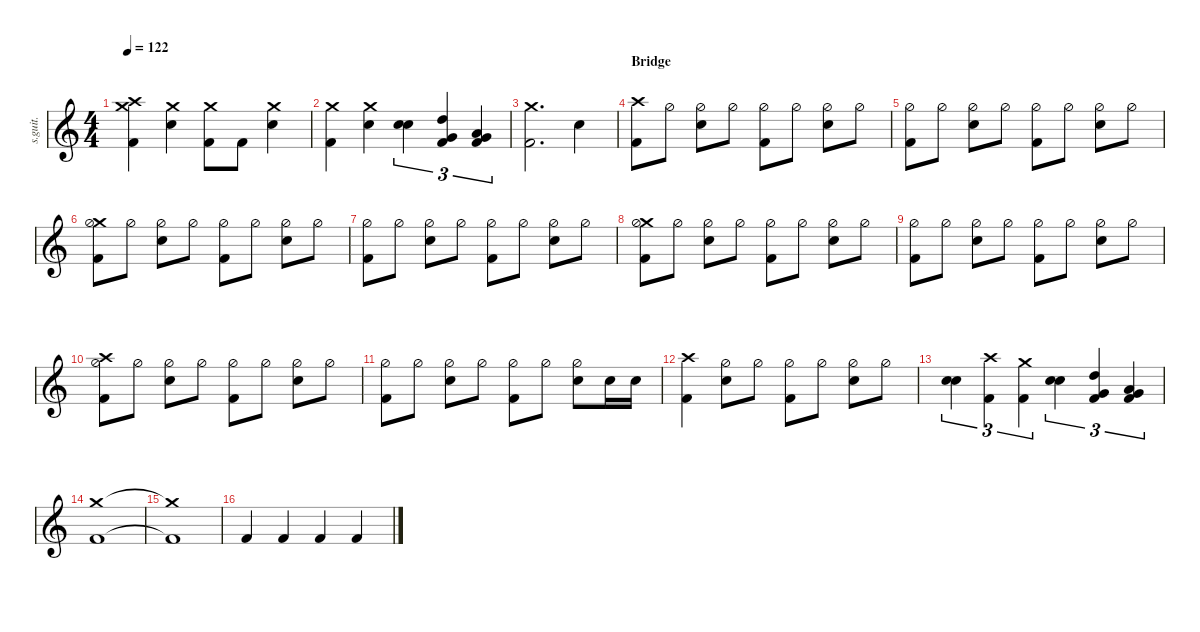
\defaultSystemsLayout 4
\hideDynamics
\bracketExtendMode nobrackets
\track ("Neil Sanderson" "s.guit.") {instrument percussion}
\staff {score}
\articulation defaults
\ts (4 4)
\tempo 122
\clef g2
\ks c
("Crash high (hit)" "Crash medium (hit)" "Kick (hit) 2").4{lyrics (0 "") lyrics (1 "") lyrics (2 "") lyrics (3 "") lyrics (4 "") dy f} ("Crash medium (hit)" "Snare (hit) 2").4{lyrics (0 "") lyrics (1 "") lyrics (2 "") lyrics (3 "") lyrics (4 "")} ("Crash medium (hit)" "Kick (hit) 2").8{lyrics (0 "") lyrics (1 "") lyrics (2 "") lyrics (3 "") lyrics (4 "")} "Kick (hit) 2".8{lyrics (0 "") lyrics (1 "") lyrics (2 "") lyrics (3 "") lyrics (4 "")} ("Crash medium (hit)" "Snare (hit) 2").4{lyrics (0 "") lyrics (1 "") lyrics (2 "") lyrics (3 "") lyrics (4 "")} |
("Crash medium (hit)" "Kick (hit) 2").4{lyrics (0 "") lyrics (1 "") lyrics (2 "") lyrics (3 "") lyrics (4 "")} ("Crash medium (hit)" "Snare (hit) 2").4{lyrics (0 "") lyrics (1 "") lyrics (2 "") lyrics (3 "") lyrics (4 "")} ("Snare (hit) 2" "Snare (hit) 2").4{tu (3 2) bd 30 lyrics (0 "") lyrics (1 "") lyrics (2 "") lyrics (3 "") lyrics (4 "")} ("High Tom (hit)" "Very Low Tom (hit)" "Kick (hit) 2").4{tu (3 2) bd 30 lyrics (0 "") lyrics (1 "") lyrics (2 "") lyrics (3 "") lyrics (4 "")} ("Very Low Tom (hit)" "Low Floor Tom (hit)" "Kick (hit) 2").4{tu (3 2) bd 30 lyrics (0 "") lyrics (1 "") lyrics (2 "") lyrics (3 "") lyrics (4 "")} |
("Crash medium (hit)" "Kick (hit) 2").2{d lyrics (0 "") lyrics (1 "") lyrics (2 "") lyrics (3 "") lyrics (4 "")} "Snare (hit) 2".4{lyrics (0 "") lyrics (1 "") lyrics (2 "") lyrics (3 "") lyrics (4 "")} |
\section ("" "Bridge")
("Crash high (hit)" "Kick (hit) 2").8{lyrics (0 "") lyrics (1 "") lyrics (2 "") lyrics (3 "") lyrics (4 "")} "Hi-Hat (half)".8{lyrics (0 "") lyrics (1 "") lyrics (2 "") lyrics (3 "") lyrics (4 "")} ("Hi-Hat (half)" "Snare (hit) 2").8{lyrics (0 "") lyrics (1 "") lyrics (2 "") lyrics (3 "") lyrics (4 "")} "Hi-Hat (half)".8{lyrics (0 "") lyrics (1 "") lyrics (2 "") lyrics (3 "") lyrics (4 "")} ("Hi-Hat (half)" "Kick (hit) 2").8{lyrics (0 "") lyrics (1 "") lyrics (2 "") lyrics (3 "") lyrics (4 "")} "Hi-Hat (half)".8{lyrics (0 "") lyrics (1 "") lyrics (2 "") lyrics (3 "") lyrics (4 "")} ("Hi-Hat (half)" "Snare (hit) 2").8{lyrics (0 "") lyrics (1 "") lyrics (2 "") lyrics (3 "") lyrics (4 "")} "Hi-Hat (half)".8{lyrics (0 "") lyrics (1 "") lyrics (2 "") lyrics (3 "") lyrics (4 "")} |
("Hi-Hat (half)" "Kick (hit) 2").8{lyrics (0 "") lyrics (1 "") lyrics (2 "") lyrics (3 "") lyrics (4 "")} "Hi-Hat (half)".8{lyrics (0 "") lyrics (1 "") lyrics (2 "") lyrics (3 "") lyrics (4 "")} ("Hi-Hat (half)" "Snare (hit) 2").8{lyrics (0 "") lyrics (1 "") lyrics (2 "") lyrics (3 "") lyrics (4 "")} "Hi-Hat (half)".8{lyrics (0 "") lyrics (1 "") lyrics (2 "") lyrics (3 "") lyrics (4 "")} ("Hi-Hat (half)" "Kick (hit) 2").8{lyrics (0 "") lyrics (1 "") lyrics (2 "") lyrics (3 "") lyrics (4 "")} "Hi-Hat (half)".8{lyrics (0 "") lyrics (1 "") lyrics (2 "") lyrics (3 "") lyrics (4 "")} ("Hi-Hat (half)" "Snare (hit) 2").8{lyrics (0 "") lyrics (1 "") lyrics (2 "") lyrics (3 "") lyrics (4 "")} "Hi-Hat (half)".8{lyrics (0 "") lyrics (1 "") lyrics (2 "") lyrics (3 "") lyrics (4 "")} |
("Crash medium (hit)" "Hi-Hat (half)" "Kick (hit) 2").8{lyrics (0 "") lyrics (1 "") lyrics (2 "") lyrics (3 "") lyrics (4 "")} "Hi-Hat (half)".8{lyrics (0 "") lyrics (1 "") lyrics (2 "") lyrics (3 "") lyrics (4 "")} ("Hi-Hat (half)" "Snare (hit) 2").8{lyrics (0 "") lyrics (1 "") lyrics (2 "") lyrics (3 "") lyrics (4 "")} "Hi-Hat (half)".8{lyrics (0 "") lyrics (1 "") lyrics (2 "") lyrics (3 "") lyrics (4 "")} ("Hi-Hat (half)" "Kick (hit) 2").8{lyrics (0 "") lyrics (1 "") lyrics (2 "") lyrics (3 "") lyrics (4 "")} "Hi-Hat (half)".8{lyrics (0 "") lyrics (1 "") lyrics (2 "") lyrics (3 "") lyrics (4 "")} ("Hi-Hat (half)" "Snare (hit) 2").8{lyrics (0 "") lyrics (1 "") lyrics (2 "") lyrics (3 "") lyrics (4 "")} "Hi-Hat (half)".8{lyrics (0 "") lyrics (1 "") lyrics (2 "") lyrics (3 "") lyrics (4 "")} |
("Hi-Hat (half)" "Kick (hit) 2").8{lyrics (0 "") lyrics (1 "") lyrics (2 "") lyrics (3 "") lyrics (4 "")} "Hi-Hat (half)".8{lyrics (0 "") lyrics (1 "") lyrics (2 "") lyrics (3 "") lyrics (4 "")} ("Hi-Hat (half)" "Snare (hit) 2").8{lyrics (0 "") lyrics (1 "") lyrics (2 "") lyrics (3 "") lyrics (4 "")} "Hi-Hat (half)".8{lyrics (0 "") lyrics (1 "") lyrics (2 "") lyrics (3 "") lyrics (4 "")} ("Hi-Hat (half)" "Kick (hit) 2").8{lyrics (0 "") lyrics (1 "") lyrics (2 "") lyrics (3 "") lyrics (4 "")} "Hi-Hat (half)".8{lyrics (0 "") lyrics (1 "") lyrics (2 "") lyrics (3 "") lyrics (4 "")} ("Hi-Hat (half)" "Snare (hit) 2").8{lyrics (0 "") lyrics (1 "") lyrics (2 "") lyrics (3 "") lyrics (4 "")} "Hi-Hat (half)".8{lyrics (0 "") lyrics (1 "") lyrics (2 "") lyrics (3 "") lyrics (4 "")} |
("Crash medium (hit)" "Hi-Hat (half)" "Kick (hit) 2").8{lyrics (0 "") lyrics (1 "") lyrics (2 "") lyrics (3 "") lyrics (4 "")} "Hi-Hat (half)".8{lyrics (0 "") lyrics (1 "") lyrics (2 "") lyrics (3 "") lyrics (4 "")} ("Hi-Hat (half)" "Snare (hit) 2").8{lyrics (0 "") lyrics (1 "") lyrics (2 "") lyrics (3 "") lyrics (4 "")} "Hi-Hat (half)".8{lyrics (0 "") lyrics (1 "") lyrics (2 "") lyrics (3 "") lyrics (4 "")} ("Hi-Hat (half)" "Kick (hit) 2").8{lyrics (0 "") lyrics (1 "") lyrics (2 "") lyrics (3 "") lyrics (4 "")} "Hi-Hat (half)".8{lyrics (0 "") lyrics (1 "") lyrics (2 "") lyrics (3 "") lyrics (4 "")} ("Hi-Hat (half)" "Snare (hit) 2").8{lyrics (0 "") lyrics (1 "") lyrics (2 "") lyrics (3 "") lyrics (4 "")} "Hi-Hat (half)".8{lyrics (0 "") lyrics (1 "") lyrics (2 "") lyrics (3 "") lyrics (4 "")} |
("Hi-Hat (half)" "Kick (hit) 2").8{lyrics (0 "") lyrics (1 "") lyrics (2 "") lyrics (3 "") lyrics (4 "")} "Hi-Hat (half)".8{lyrics (0 "") lyrics (1 "") lyrics (2 "") lyrics (3 "") lyrics (4 "")} ("Hi-Hat (half)" "Snare (hit) 2").8{lyrics (0 "") lyrics (1 "") lyrics (2 "") lyrics (3 "") lyrics (4 "")} "Hi-Hat (half)".8{lyrics (0 "") lyrics (1 "") lyrics (2 "") lyrics (3 "") lyrics (4 "")} ("Hi-Hat (half)" "Kick (hit) 2").8{lyrics (0 "") lyrics (1 "") lyrics (2 "") lyrics (3 "") lyrics (4 "")} "Hi-Hat (half)".8{lyrics (0 "") lyrics (1 "") lyrics (2 "") lyrics (3 "") lyrics (4 "")} ("Hi-Hat (half)" "Snare (hit) 2").8{lyrics (0 "") lyrics (1 "") lyrics (2 "") lyrics (3 "") lyrics (4 "")} "Hi-Hat (half)".8{lyrics (0 "") lyrics (1 "") lyrics (2 "") lyrics (3 "") lyrics (4 "")} |
("Crash high (hit)" "Hi-Hat (half)" "Kick (hit) 2").8{lyrics (0 "") lyrics (1 "") lyrics (2 "") lyrics (3 "") lyrics (4 "")} "Hi-Hat (half)".8{lyrics (0 "") lyrics (1 "") lyrics (2 "") lyrics (3 "") lyrics (4 "")} ("Hi-Hat (half)" "Snare (hit) 2").8{lyrics (0 "") lyrics (1 "") lyrics (2 "") lyrics (3 "") lyrics (4 "")} "Hi-Hat (half)".8{lyrics (0 "") lyrics (1 "") lyrics (2 "") lyrics (3 "") lyrics (4 "")} ("Hi-Hat (half)" "Kick (hit) 2").8{lyrics (0 "") lyrics (1 "") lyrics (2 "") lyrics (3 "") lyrics (4 "")} "Hi-Hat (half)".8{lyrics (0 "") lyrics (1 "") lyrics (2 "") lyrics (3 "") lyrics (4 "")} ("Hi-Hat (half)" "Snare (hit) 2").8{lyrics (0 "") lyrics (1 "") lyrics (2 "") lyrics (3 "") lyrics (4 "")} "Hi-Hat (half)".8{lyrics (0 "") lyrics (1 "") lyrics (2 "") lyrics (3 "") lyrics (4 "")} |
("Hi-Hat (half)" "Kick (hit) 2").8{lyrics (0 "") lyrics (1 "") lyrics (2 "") lyrics (3 "") lyrics (4 "")} "Hi-Hat (half)".8{lyrics (0 "") lyrics (1 "") lyrics (2 "") lyrics (3 "") lyrics (4 "")} ("Hi-Hat (half)" "Snare (hit) 2").8{lyrics (0 "") lyrics (1 "") lyrics (2 "") lyrics (3 "") lyrics (4 "")} "Hi-Hat (half)".8{lyrics (0 "") lyrics (1 "") lyrics (2 "") lyrics (3 "") lyrics (4 "")} ("Hi-Hat (half)" "Kick (hit) 2").8{lyrics (0 "") lyrics (1 "") lyrics (2 "") lyrics (3 "") lyrics (4 "")} "Hi-Hat (half)".8{lyrics (0 "") lyrics (1 "") lyrics (2 "") lyrics (3 "") lyrics (4 "")} ("Hi-Hat (half)" "Snare (hit) 2").8{lyrics (0 "") lyrics (1 "") lyrics (2 "") lyrics (3 "") lyrics (4 "")} "Snare (hit) 2".16{lyrics (0 "") lyrics (1 "") lyrics (2 "") lyrics (3 "") lyrics (4 "")} "Snare (hit) 2".16{lyrics (0 "") lyrics (1 "") lyrics (2 "") lyrics (3 "") lyrics (4 "")} |
("Crash high (hit)" "Kick (hit) 2").4{lyrics (0 "") lyrics (1 "") lyrics (2 "") lyrics (3 "") lyrics (4 "")} ("Hi-Hat (half)" "Snare (hit) 2").8{lyrics (0 "") lyrics (1 "") lyrics (2 "") lyrics (3 "") lyrics (4 "")} "Hi-Hat (half)".8{lyrics (0 "") lyrics (1 "") lyrics (2 "") lyrics (3 "") lyrics (4 "")} ("Hi-Hat (half)" "Kick (hit) 2").8{lyrics (0 "") lyrics (1 "") lyrics (2 "") lyrics (3 "") lyrics (4 "")} "Hi-Hat (half)".8{lyrics (0 "") lyrics (1 "") lyrics (2 "") lyrics (3 "") lyrics (4 "")} ("Hi-Hat (half)" "Snare (hit) 2").8{lyrics (0 "") lyrics (1 "") lyrics (2 "") lyrics (3 "") lyrics (4 "")} "Hi-Hat (half)".8{lyrics (0 "") lyrics (1 "") lyrics (2 "") lyrics (3 "") lyrics (4 "")} |
("Snare (hit) 2" "Snare (hit) 2").4{tu (3 2) bd 30 lyrics (0 "") lyrics (1 "") lyrics (2 "") lyrics (3 "") lyrics (4 "")} ("Crash high (hit)" "Kick (hit) 2").4{tu (3 2) lyrics (0 "") lyrics (1 "") lyrics (2 "") lyrics (3 "") lyrics (4 "")} ("Crash medium (hit)" "Kick (hit) 2").4{tu (3 2) lyrics (0 "") lyrics (1 "") lyrics (2 "") lyrics (3 "") lyrics (4 "")} ("Snare (hit) 2" "Snare (hit) 2").4{tu (3 2) bd 30 lyrics (0 "") lyrics (1 "") lyrics (2 "") lyrics (3 "") lyrics (4 "")} ("High Tom (hit)" "Very Low Tom (hit)" "Kick (hit) 2").4{tu (3 2) bd 30 lyrics (0 "") lyrics (1 "") lyrics (2 "") lyrics (3 "") lyrics (4 "")} ("Very Low Tom (hit)" "Low Floor Tom (hit)" "Kick (hit) 2").4{tu (3 2) bd 30 lyrics (0 "") lyrics (1 "") lyrics (2 "") lyrics (3 "") lyrics (4 "")} |
("Crash medium (hit)" "Kick (hit) 2").1{lyrics (0 "") lyrics (1 "") lyrics (2 "") lyrics (3 "") lyrics (4 "")} |
("Crash medium (hit)"{t} "Kick (hit) 2"{t}).1{lyrics (0 "") lyrics (1 "") lyrics (2 "") lyrics (3 "") lyrics (4 "")} |
"Kick (hit) 2".4{lyrics (0 "") lyrics (1 "") lyrics (2 "") lyrics (3 "") lyrics (4 "")} "Kick (hit) 2".4{lyrics (0 "") lyrics (1 "") lyrics (2 "") lyrics (3 "") lyrics (4 "")} "Kick (hit) 2".4{lyrics (0 "") lyrics (1 "") lyrics (2 "") lyrics (3 "") lyrics (4 "")} "Kick (hit) 2".4{lyrics (0 "") lyrics (1 "") lyrics (2 "") lyrics (3 "") lyrics (4 "")}
